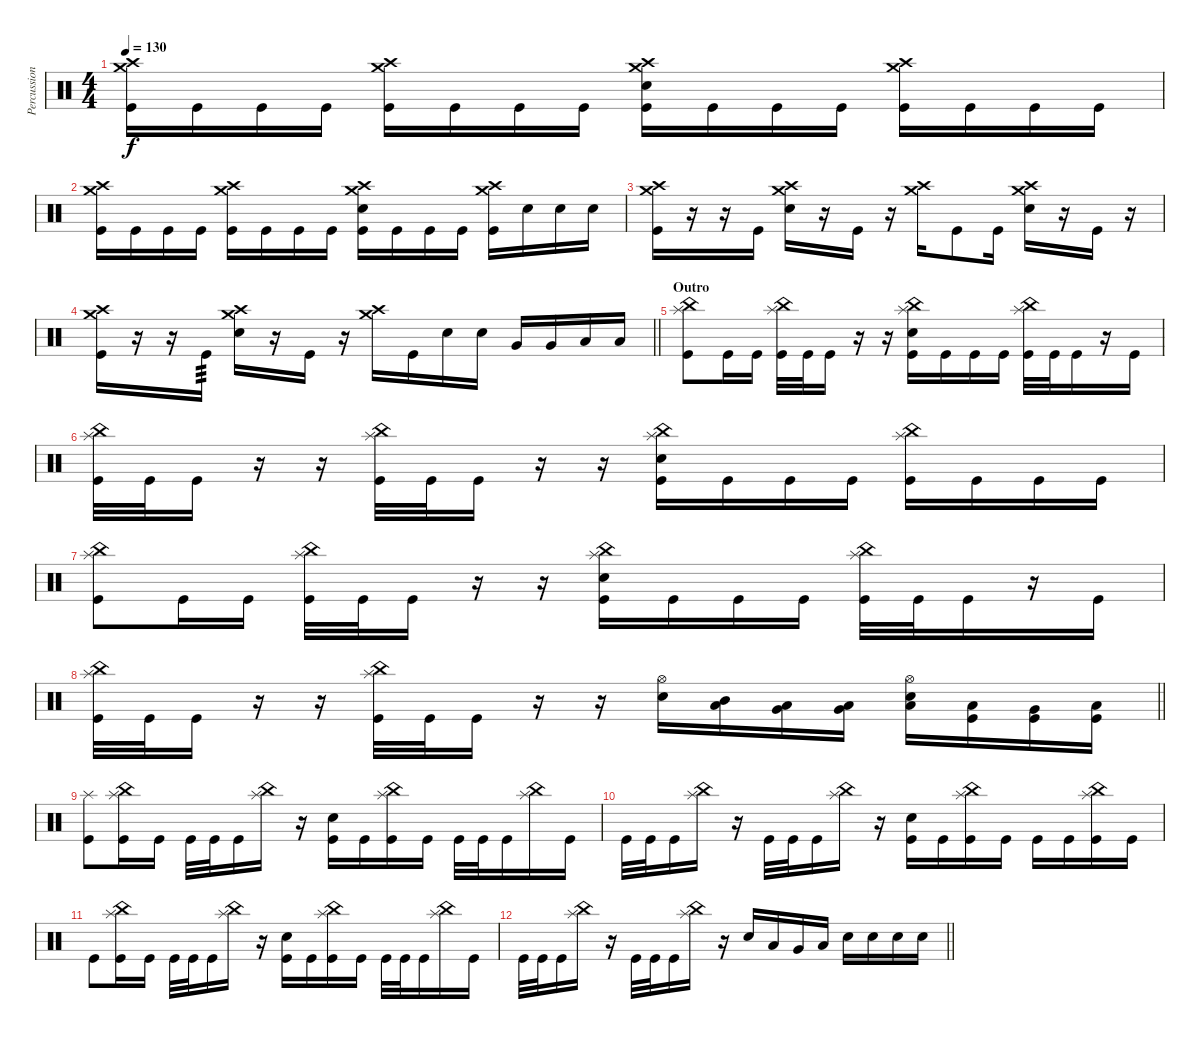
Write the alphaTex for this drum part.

\track ("Percussion (Approx.)" "Percussion") {instrument percussion}
\staff {score}
\articulation defaults
\ts (4 4)
\tempo 130
\clef neutral
\ks c
("Crash medium (hit)" "Crash high (hit)" "Kick (hit)").16{dy f} "Kick (hit)".16 "Kick (hit)".16 "Kick (hit)".16 ("Crash medium (hit)" "Crash high (hit)" "Kick (hit)").16 "Kick (hit)".16 "Kick (hit)".16 "Kick (hit)".16 ("Crash medium (hit)" "Crash high (hit)" "Electric Snare (hit)" "Kick (hit)").16 "Kick (hit)".16 "Kick (hit)".16 "Kick (hit)".16 ("Crash medium (hit)" "Crash high (hit)" "Kick (hit)").16 "Kick (hit)".16 "Kick (hit)".16 "Kick (hit)".16 |
("Crash medium (hit)" "Crash high (hit)" "Kick (hit)").16 "Kick (hit)".16 "Kick (hit)".16 "Kick (hit)".16 ("Crash medium (hit)" "Crash high (hit)" "Kick (hit)").16 "Kick (hit)".16 "Kick (hit)".16 "Kick (hit)".16 ("Crash medium (hit)" "Crash high (hit)" "Electric Snare (hit)" "Kick (hit)").16 "Kick (hit)".16 "Kick (hit)".16 "Kick (hit)".16 ("Crash medium (hit)" "Crash high (hit)" "Kick (hit)").16 "Electric Snare (hit)".16 "Electric Snare (hit)".16 "Electric Snare (hit)".16 |
("Crash medium (hit)" "Crash high (hit)" "Kick (hit)").16 r.16 r.16 "Kick (hit)".16 ("Crash medium (hit)" "Crash high (hit)" "Electric Snare (hit)").16 r.16 "Kick (hit)".16 r.16 ("Crash medium (hit)" "Crash high (hit)").16 "Kick (hit)".8 "Kick (hit)".16 ("Crash medium (hit)" "Crash high (hit)" "Electric Snare (hit)").16 r.16 "Kick (hit)".16 r.16 |
\barLineRight lightlight
("Crash medium (hit)" "Crash high (hit)" "Kick (hit)").16 r.16 r.16 "Kick (hit)".16{tp 3} ("Crash medium (hit)" "Crash high (hit)" "Electric Snare (hit)").16 r.16 "Kick (hit)".16 r.16 ("Crash medium (hit)" "Crash high (hit)").16 "Kick (hit)".16 "Electric Snare (hit)".16 "Electric Snare (hit)".16 "Very Low Tom (hit)".16 "Very Low Tom (hit)".16 "Low Floor Tom (hit)".16 "Low Floor Tom (hit)".16 |
\section ("" "Outro")
("China (hit)" "Splash (hit)" "Kick (hit)").8 "Kick (hit)".16 "Kick (hit)".16 ("China (hit)" "Splash (hit)" "Kick (hit)").32 "Kick (hit)".32 "Kick (hit)".16 r.16 r.16 ("China (hit)" "Splash (hit)" "Electric Snare (hit)" "Kick (hit)").16 "Kick (hit)".16 "Kick (hit)".16 "Kick (hit)".16 ("China (hit)" "Splash (hit)" "Kick (hit)").32 "Kick (hit)".32 "Kick (hit)".16 r.16 "Kick (hit)".16 |
("China (hit)" "Splash (hit)" "Kick (hit)").32 "Kick (hit)".32 "Kick (hit)".16 r.16 r.16 ("China (hit)" "Splash (hit)" "Kick (hit)").32 "Kick (hit)".32 "Kick (hit)".16 r.16 r.16 ("China (hit)" "Splash (hit)" "Electric Snare (hit)" "Kick (hit)").16 "Kick (hit)".16 "Kick (hit)".16 "Kick (hit)".16 ("China (hit)" "Splash (hit)" "Kick (hit)").16 "Kick (hit)".16 "Kick (hit)".16 "Kick (hit)".16 |
("China (hit)" "Splash (hit)" "Kick (hit)").8 "Kick (hit)".16 "Kick (hit)".16 ("China (hit)" "Splash (hit)" "Kick (hit)").32 "Kick (hit)".32 "Kick (hit)".16 r.16 r.16 ("China (hit)" "Splash (hit)" "Electric Snare (hit)" "Kick (hit)").16 "Kick (hit)".16 "Kick (hit)".16 "Kick (hit)".16 ("China (hit)" "Splash (hit)" "Kick (hit)").32 "Kick (hit)".32 "Kick (hit)".16 r.16 "Kick (hit)".16 |
\barLineRight lightlight
("China (hit)" "Splash (hit)" "Kick (hit)").32 "Kick (hit)".32 "Kick (hit)".16 r.16 r.16 ("China (hit)" "Splash (hit)" "Kick (hit)").32 "Kick (hit)".32 "Kick (hit)".16 r.16 r.16 ("Hi-Hat (open)" "Electric Snare (hit)").16 ("Mid Tom (hit)" "Low Tom (hit)").16 ("Low Tom (hit)" "Very Low Tom (hit)").16 ("Very Low Tom (hit)" "Low Floor Tom (hit)").16 ("Hi-Hat (open)" "Low Floor Tom (hit)" "Electric Snare (hit)").16 ("Low Tom (hit)" "Kick (hit)").16 ("Very Low Tom (hit)" "Kick (hit)").16 ("Low Floor Tom (hit)" "Kick (hit)").16 |
\section ("" "")
("Splash (hit)" "Kick (hit)").8 ("China (hit)" "Splash (hit)" "Kick (hit)").16 "Kick (hit)".16 "Kick (hit)".32 "Kick (hit)".32 "Kick (hit)".16 ("China (hit)" "Splash (hit)").16 r.16 ("Electric Snare (hit)" "Kick (hit)").16 "Kick (hit)".16 ("China (hit)" "Splash (hit)" "Kick (hit)").16 "Kick (hit)".16 "Kick (hit)".32 "Kick (hit)".32 "Kick (hit)".16 ("China (hit)" "Splash (hit)").16 "Kick (hit)".16 |
"Kick (hit)".32 "Kick (hit)".32 "Kick (hit)".16 ("China (hit)" "Splash (hit)").16 r.16 "Kick (hit)".32 "Kick (hit)".32 "Kick (hit)".16 ("China (hit)" "Splash (hit)").16 r.16 ("Electric Snare (hit)" "Kick (hit)").16 "Kick (hit)".16 ("China (hit)" "Splash (hit)" "Kick (hit)").16 "Kick (hit)".16 "Kick (hit)".16 "Kick (hit)".16 ("China (hit)" "Splash (hit)" "Kick (hit)").16 "Kick (hit)".16 |
"Kick (hit)".8 ("China (hit)" "Splash (hit)" "Kick (hit)").16 "Kick (hit)".16 "Kick (hit)".32 "Kick (hit)".32 "Kick (hit)".16 ("China (hit)" "Splash (hit)").16 r.16 ("Electric Snare (hit)" "Kick (hit)").16 "Kick (hit)".16 ("China (hit)" "Splash (hit)" "Kick (hit)").16 "Kick (hit)".16 "Kick (hit)".32 "Kick (hit)".32 "Kick (hit)".16 ("China (hit)" "Splash (hit)").16 "Kick (hit)".16 |
\barLineRight lightlight "Kick (hit)".32 "Kick (hit)".32 "Kick (hit)".16
("China (hit)" "Splash (hit)").16 r.16 "Kick (hit)".32 "Kick (hit)".32 "Kick (hit)".16 ("China (hit)" "Splash (hit)").16 r.16 "Electric Snare (hit)".16 "Low Tom (hit)".16 "Very Low Tom (hit)".16 "Low Floor Tom (hit)".16 "Electric Snare (hit)".16 "Electric Snare (hit)".16 "Electric Snare (hit)".16 "Electric Snare (hit)".16
